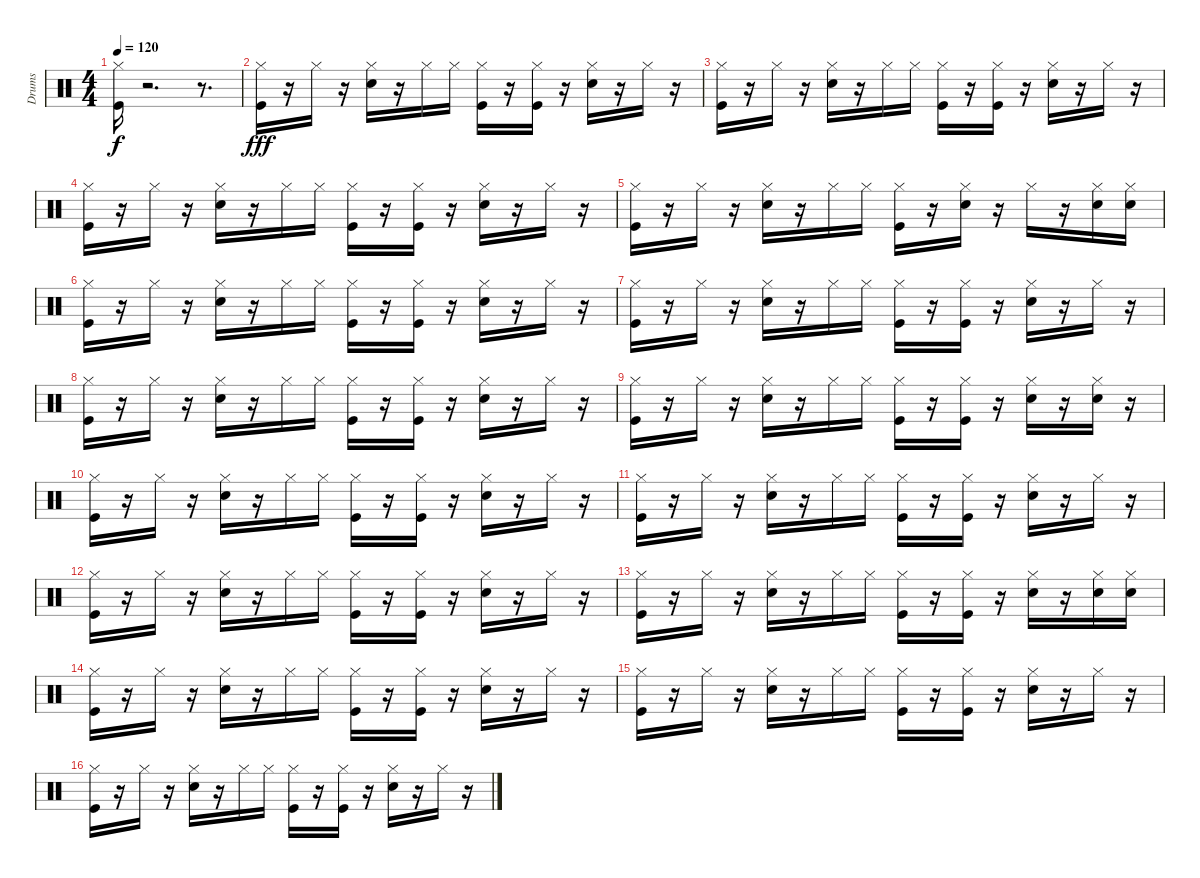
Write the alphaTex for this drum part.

\track ("Drums" "Drums") {instrument percussion}
\staff {score}
\articulation defaults
\ts (4 4)
\tempo 120
\clef neutral
\ks c
("Hi-Hat (closed)" "Kick (hit)").16{dy f} r.2{d} r.8{d} |
("Kick (hit)" "Hi-Hat (closed)").16{dy fff} r.16 "Hi-Hat (closed)".16 r.16 ("Snare (hit) 2" "Hi-Hat (closed)").16 r.16 "Hi-Hat (closed)".16 "Hi-Hat (closed)".16 ("Kick (hit)" "Hi-Hat (closed)").16 r.16 ("Kick (hit)" "Hi-Hat (closed)").16 r.16 ("Snare (hit) 2" "Hi-Hat (closed)").16 r.16 "Hi-Hat (closed)".16 r.16 |
("Kick (hit)" "Hi-Hat (closed)").16 r.16 "Hi-Hat (closed)".16 r.16 ("Snare (hit) 2" "Hi-Hat (closed)").16 r.16 "Hi-Hat (closed)".16 "Hi-Hat (closed)".16 ("Kick (hit)" "Hi-Hat (closed)").16 r.16 ("Kick (hit)" "Hi-Hat (closed)").16 r.16 ("Snare (hit) 2" "Hi-Hat (closed)").16 r.16 "Hi-Hat (closed)".16 r.16 |
("Kick (hit)" "Hi-Hat (closed)").16 r.16 "Hi-Hat (closed)".16 r.16 ("Snare (hit) 2" "Hi-Hat (closed)").16 r.16 "Hi-Hat (closed)".16 "Hi-Hat (closed)".16 ("Kick (hit)" "Hi-Hat (closed)").16 r.16 ("Kick (hit)" "Hi-Hat (closed)").16 r.16 ("Snare (hit) 2" "Hi-Hat (closed)").16 r.16 "Hi-Hat (closed)".16 r.16 |
("Kick (hit)" "Hi-Hat (closed)").16 r.16 "Hi-Hat (closed)".16 r.16 ("Snare (hit) 2" "Hi-Hat (closed)").16 r.16 "Hi-Hat (closed)".16 "Hi-Hat (closed)".16 ("Kick (hit)" "Hi-Hat (closed)").16 r.16 ("Snare (hit) 2" "Hi-Hat (closed)").16 r.16 "Hi-Hat (closed)".16 r.16 ("Snare (hit) 2" "Hi-Hat (closed)").16 ("Snare (hit) 2" "Hi-Hat (closed)").16 |
("Kick (hit)" "Hi-Hat (closed)").16 r.16 "Hi-Hat (closed)".16 r.16 ("Snare (hit) 2" "Hi-Hat (closed)").16 r.16 "Hi-Hat (closed)".16 "Hi-Hat (closed)".16 ("Kick (hit)" "Hi-Hat (closed)").16 r.16 ("Kick (hit)" "Hi-Hat (closed)").16 r.16 ("Snare (hit) 2" "Hi-Hat (closed)").16 r.16 "Hi-Hat (closed)".16 r.16 |
("Kick (hit)" "Hi-Hat (closed)").16 r.16 "Hi-Hat (closed)".16 r.16 ("Snare (hit) 2" "Hi-Hat (closed)").16 r.16 "Hi-Hat (closed)".16 "Hi-Hat (closed)".16 ("Kick (hit)" "Hi-Hat (closed)").16 r.16 ("Kick (hit)" "Hi-Hat (closed)").16 r.16 ("Snare (hit) 2" "Hi-Hat (closed)").16 r.16 "Hi-Hat (closed)".16 r.16 |
("Kick (hit)" "Hi-Hat (closed)").16 r.16 "Hi-Hat (closed)".16 r.16 ("Snare (hit) 2" "Hi-Hat (closed)").16 r.16 "Hi-Hat (closed)".16 "Hi-Hat (closed)".16 ("Kick (hit)" "Hi-Hat (closed)").16 r.16 ("Kick (hit)" "Hi-Hat (closed)").16 r.16 ("Snare (hit) 2" "Hi-Hat (closed)").16 r.16 "Hi-Hat (closed)".16 r.16 |
("Kick (hit)" "Hi-Hat (closed)").16 r.16 "Hi-Hat (closed)".16 r.16 ("Snare (hit) 2" "Hi-Hat (closed)").16 r.16 "Hi-Hat (closed)".16 "Hi-Hat (closed)".16 ("Kick (hit)" "Hi-Hat (closed)").16 r.16 ("Kick (hit)" "Hi-Hat (closed)").16 r.16 ("Snare (hit) 2" "Hi-Hat (closed)").16 r.16 ("Snare (hit) 2" "Hi-Hat (closed)").16 r.16 |
("Kick (hit)" "Hi-Hat (closed)").16 r.16 "Hi-Hat (closed)".16 r.16 ("Snare (hit) 2" "Hi-Hat (closed)").16 r.16 "Hi-Hat (closed)".16 "Hi-Hat (closed)".16 ("Kick (hit)" "Hi-Hat (closed)").16 r.16 ("Kick (hit)" "Hi-Hat (closed)").16 r.16 ("Snare (hit) 2" "Hi-Hat (closed)").16 r.16 "Hi-Hat (closed)".16 r.16 |
("Kick (hit)" "Hi-Hat (closed)").16 r.16 "Hi-Hat (closed)".16 r.16 ("Snare (hit) 2" "Hi-Hat (closed)").16 r.16 "Hi-Hat (closed)".16 "Hi-Hat (closed)".16 ("Kick (hit)" "Hi-Hat (closed)").16 r.16 ("Kick (hit)" "Hi-Hat (closed)").16 r.16 ("Snare (hit) 2" "Hi-Hat (closed)").16 r.16 "Hi-Hat (closed)".16 r.16 |
("Kick (hit)" "Hi-Hat (closed)").16 r.16 "Hi-Hat (closed)".16 r.16 ("Snare (hit) 2" "Hi-Hat (closed)").16 r.16 "Hi-Hat (closed)".16 "Hi-Hat (closed)".16 ("Kick (hit)" "Hi-Hat (closed)").16 r.16 ("Kick (hit)" "Hi-Hat (closed)").16 r.16 ("Snare (hit) 2" "Hi-Hat (closed)").16 r.16 "Hi-Hat (closed)".16 r.16 |
("Kick (hit)" "Hi-Hat (closed)").16 r.16 "Hi-Hat (closed)".16 r.16 ("Snare (hit) 2" "Hi-Hat (closed)").16 r.16 "Hi-Hat (closed)".16 "Hi-Hat (closed)".16 ("Kick (hit)" "Hi-Hat (closed)").16 r.16 ("Kick (hit)" "Hi-Hat (closed)").16 r.16 ("Snare (hit) 2" "Hi-Hat (closed)").16 r.16 ("Snare (hit) 2" "Hi-Hat (closed)").16 ("Snare (hit) 2" "Hi-Hat (closed)").16 |
("Kick (hit)" "Hi-Hat (closed)").16 r.16 "Hi-Hat (closed)".16 r.16 ("Snare (hit) 2" "Hi-Hat (closed)").16 r.16 "Hi-Hat (closed)".16 "Hi-Hat (closed)".16 ("Kick (hit)" "Hi-Hat (closed)").16 r.16 ("Kick (hit)" "Hi-Hat (closed)").16 r.16 ("Snare (hit) 2" "Hi-Hat (closed)").16 r.16 "Hi-Hat (closed)".16 r.16 |
("Kick (hit)" "Hi-Hat (closed)").16 r.16 "Hi-Hat (closed)".16 r.16 ("Snare (hit) 2" "Hi-Hat (closed)").16 r.16 "Hi-Hat (closed)".16 "Hi-Hat (closed)".16 ("Kick (hit)" "Hi-Hat (closed)").16 r.16 ("Kick (hit)" "Hi-Hat (closed)").16 r.16 ("Snare (hit) 2" "Hi-Hat (closed)").16 r.16 "Hi-Hat (closed)".16 r.16 |
("Kick (hit)" "Hi-Hat (closed)").16 r.16 "Hi-Hat (closed)".16 r.16 ("Snare (hit) 2" "Hi-Hat (closed)").16 r.16 "Hi-Hat (closed)".16 "Hi-Hat (closed)".16 ("Kick (hit)" "Hi-Hat (closed)").16 r.16 ("Kick (hit)" "Hi-Hat (closed)").16 r.16 ("Snare (hit) 2" "Hi-Hat (closed)").16 r.16 "Hi-Hat (closed)".16 r.16
